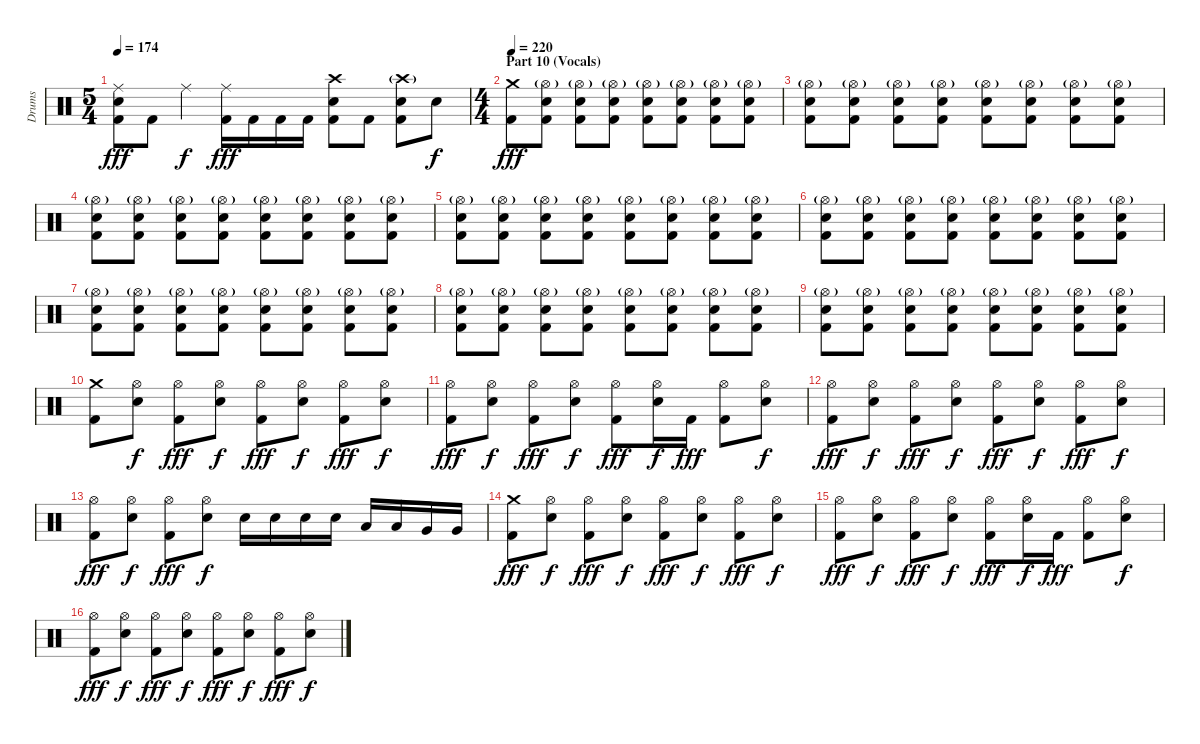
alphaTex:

\track ("Drums" "Drums") {instrument percussion}
\staff {score}
\articulation defaults
\ts (5 4)
\tempo 174
\clef neutral
\ks c
("Ride (middle)" "Electric Snare (hit)" "Kick (hit) 2").8{dy fff} "Kick (hit) 2".8 "Ride (middle)".4{dy f} ("Ride (middle)" "Kick (hit) 2").16{dy fff} "Kick (hit) 2".16 "Kick (hit) 2".16 "Kick (hit) 2".16 ("Crash high (hit)" "Electric Snare (hit)" "Kick (hit) 2").8 "Kick (hit) 2".8 ("Crash high (hit)"{g} "Electric Snare (hit)" "Kick (hit) 2").8 "Electric Snare (hit)".8{dy f} |
\ts (4 4)
\section ("" "Part 10 (Vocals)")
\tempo 220
("Crash medium (hit)" "Kick (hit) 2").8{dy fff} ("Hi-Hat (open)"{g} "Electric Snare (hit)" "Kick (hit) 2").8 ("Hi-Hat (open)"{g} "Electric Snare (hit)" "Kick (hit) 2").8 ("Hi-Hat (open)"{g} "Electric Snare (hit)" "Kick (hit) 2").8 ("Hi-Hat (open)"{g} "Electric Snare (hit)" "Kick (hit) 2").8 ("Hi-Hat (open)"{g} "Electric Snare (hit)" "Kick (hit) 2").8 ("Hi-Hat (open)"{g} "Electric Snare (hit)" "Kick (hit) 2").8 ("Hi-Hat (open)"{g} "Electric Snare (hit)" "Kick (hit) 2").8 |
("Hi-Hat (open)"{g} "Electric Snare (hit)" "Kick (hit) 2").8 ("Hi-Hat (open)"{g} "Electric Snare (hit)" "Kick (hit) 2").8 ("Hi-Hat (open)"{g} "Electric Snare (hit)" "Kick (hit) 2").8 ("Hi-Hat (open)"{g} "Electric Snare (hit)" "Kick (hit) 2").8 ("Hi-Hat (open)"{g} "Electric Snare (hit)" "Kick (hit) 2").8 ("Hi-Hat (open)"{g} "Electric Snare (hit)" "Kick (hit) 2").8 ("Hi-Hat (open)"{g} "Electric Snare (hit)" "Kick (hit) 2").8 ("Hi-Hat (open)"{g} "Electric Snare (hit)" "Kick (hit) 2").8 |
("Hi-Hat (open)"{g} "Electric Snare (hit)" "Kick (hit) 2").8 ("Hi-Hat (open)"{g} "Electric Snare (hit)" "Kick (hit) 2").8 ("Hi-Hat (open)"{g} "Electric Snare (hit)" "Kick (hit) 2").8 ("Hi-Hat (open)"{g} "Electric Snare (hit)" "Kick (hit) 2").8 ("Hi-Hat (open)"{g} "Electric Snare (hit)" "Kick (hit) 2").8 ("Hi-Hat (open)"{g} "Electric Snare (hit)" "Kick (hit) 2").8 ("Hi-Hat (open)"{g} "Electric Snare (hit)" "Kick (hit) 2").8 ("Hi-Hat (open)"{g} "Electric Snare (hit)" "Kick (hit) 2").8 |
("Hi-Hat (open)"{g} "Electric Snare (hit)" "Kick (hit) 2").8 ("Hi-Hat (open)"{g} "Electric Snare (hit)" "Kick (hit) 2").8 ("Hi-Hat (open)"{g} "Electric Snare (hit)" "Kick (hit) 2").8 ("Hi-Hat (open)"{g} "Electric Snare (hit)" "Kick (hit) 2").8 ("Hi-Hat (open)"{g} "Electric Snare (hit)" "Kick (hit) 2").8 ("Hi-Hat (open)"{g} "Electric Snare (hit)" "Kick (hit) 2").8 ("Hi-Hat (open)"{g} "Electric Snare (hit)" "Kick (hit) 2").8 ("Hi-Hat (open)"{g} "Electric Snare (hit)" "Kick (hit) 2").8 |
("Hi-Hat (open)"{g} "Electric Snare (hit)" "Kick (hit) 2").8 ("Hi-Hat (open)"{g} "Electric Snare (hit)" "Kick (hit) 2").8 ("Hi-Hat (open)"{g} "Electric Snare (hit)" "Kick (hit) 2").8 ("Hi-Hat (open)"{g} "Electric Snare (hit)" "Kick (hit) 2").8 ("Hi-Hat (open)"{g} "Electric Snare (hit)" "Kick (hit) 2").8 ("Hi-Hat (open)"{g} "Electric Snare (hit)" "Kick (hit) 2").8 ("Hi-Hat (open)"{g} "Electric Snare (hit)" "Kick (hit) 2").8 ("Hi-Hat (open)"{g} "Electric Snare (hit)" "Kick (hit) 2").8 |
("Hi-Hat (open)"{g} "Electric Snare (hit)" "Kick (hit) 2").8 ("Hi-Hat (open)"{g} "Electric Snare (hit)" "Kick (hit) 2").8 ("Hi-Hat (open)"{g} "Electric Snare (hit)" "Kick (hit) 2").8 ("Hi-Hat (open)"{g} "Electric Snare (hit)" "Kick (hit) 2").8 ("Hi-Hat (open)"{g} "Electric Snare (hit)" "Kick (hit) 2").8 ("Hi-Hat (open)"{g} "Electric Snare (hit)" "Kick (hit) 2").8 ("Hi-Hat (open)"{g} "Electric Snare (hit)" "Kick (hit) 2").8 ("Hi-Hat (open)"{g} "Electric Snare (hit)" "Kick (hit) 2").8 |
("Hi-Hat (open)"{g} "Electric Snare (hit)" "Kick (hit) 2").8 ("Hi-Hat (open)"{g} "Electric Snare (hit)" "Kick (hit) 2").8 ("Hi-Hat (open)"{g} "Electric Snare (hit)" "Kick (hit) 2").8 ("Hi-Hat (open)"{g} "Electric Snare (hit)" "Kick (hit) 2").8 ("Hi-Hat (open)"{g} "Electric Snare (hit)" "Kick (hit) 2").8 ("Hi-Hat (open)"{g} "Electric Snare (hit)" "Kick (hit) 2").8 ("Hi-Hat (open)"{g} "Electric Snare (hit)" "Kick (hit) 2").8 ("Hi-Hat (open)"{g} "Electric Snare (hit)" "Kick (hit) 2").8 |
("Hi-Hat (open)"{g} "Electric Snare (hit)" "Kick (hit) 2").8 ("Hi-Hat (open)"{g} "Electric Snare (hit)" "Kick (hit) 2").8 ("Hi-Hat (open)"{g} "Electric Snare (hit)" "Kick (hit) 2").8 ("Hi-Hat (open)"{g} "Electric Snare (hit)" "Kick (hit) 2").8 ("Hi-Hat (open)"{g} "Electric Snare (hit)" "Kick (hit) 2").8 ("Hi-Hat (open)"{g} "Electric Snare (hit)" "Kick (hit) 2").8 ("Hi-Hat (open)"{g} "Electric Snare (hit)" "Kick (hit) 2").8 ("Hi-Hat (open)"{g} "Electric Snare (hit)" "Kick (hit) 2").8 |
("Crash medium (hit)" "Kick (hit) 2").8 ("Hi-Hat (open)" "Electric Snare (hit)").8{dy f} ("Hi-Hat (open)" "Kick (hit) 2").8{dy fff} ("Hi-Hat (open)" "Electric Snare (hit)").8{dy f} ("Hi-Hat (open)" "Kick (hit) 2").8{dy fff} ("Hi-Hat (open)" "Electric Snare (hit)").8{dy f} ("Hi-Hat (open)" "Kick (hit) 2").8{dy fff} ("Hi-Hat (open)" "Electric Snare (hit)").8{dy f} |
("Hi-Hat (open)" "Kick (hit) 2").8{dy fff} ("Hi-Hat (open)" "Electric Snare (hit)").8{dy f} ("Hi-Hat (open)" "Kick (hit) 2").8{dy fff} ("Hi-Hat (open)" "Electric Snare (hit)").8{dy f} ("Hi-Hat (open)" "Kick (hit) 2").8{dy fff} ("Hi-Hat (open)" "Electric Snare (hit)").16{dy f} "Kick (hit) 2".16{dy fff} ("Hi-Hat (open)" "Kick (hit) 2").8 ("Hi-Hat (open)" "Electric Snare (hit)").8{dy f} |
("Hi-Hat (open)" "Kick (hit) 2").8{dy fff} ("Hi-Hat (open)" "Electric Snare (hit)").8{dy f} ("Hi-Hat (open)" "Kick (hit) 2").8{dy fff} ("Hi-Hat (open)" "Electric Snare (hit)").8{dy f} ("Hi-Hat (open)" "Kick (hit) 2").8{dy fff} ("Hi-Hat (open)" "Electric Snare (hit)").8{dy f} ("Hi-Hat (open)" "Kick (hit) 2").8{dy fff} ("Hi-Hat (open)" "Electric Snare (hit)").8{dy f} |
("Hi-Hat (open)" "Kick (hit) 2").8{dy fff} ("Hi-Hat (open)" "Electric Snare (hit)").8{dy f} ("Hi-Hat (open)" "Kick (hit) 2").8{dy fff} ("Hi-Hat (open)" "Electric Snare (hit)").8{dy f} "Electric Snare (hit)".16 "Electric Snare (hit)".16 "Electric Snare (hit)".16 "Electric Snare (hit)".16 "Low Tom (hit)".16 "Low Tom (hit)".16 "Very Low Tom (hit)".16 "Very Low Tom (hit)".16 |
("Crash medium (hit)" "Kick (hit) 2").8{dy fff} ("Hi-Hat (open)" "Electric Snare (hit)").8{dy f} ("Hi-Hat (open)" "Kick (hit) 2").8{dy fff} ("Hi-Hat (open)" "Electric Snare (hit)").8{dy f} ("Hi-Hat (open)" "Kick (hit) 2").8{dy fff} ("Hi-Hat (open)" "Electric Snare (hit)").8{dy f} ("Hi-Hat (open)" "Kick (hit) 2").8{dy fff} ("Hi-Hat (open)" "Electric Snare (hit)").8{dy f} |
("Hi-Hat (open)" "Kick (hit) 2").8{dy fff} ("Hi-Hat (open)" "Electric Snare (hit)").8{dy f} ("Hi-Hat (open)" "Kick (hit) 2").8{dy fff} ("Hi-Hat (open)" "Electric Snare (hit)").8{dy f} ("Hi-Hat (open)" "Kick (hit) 2").8{dy fff} ("Hi-Hat (open)" "Electric Snare (hit)").16{dy f} "Kick (hit) 2".16{dy fff} ("Hi-Hat (open)" "Kick (hit) 2").8 ("Hi-Hat (open)" "Electric Snare (hit)").8{dy f} |
("Hi-Hat (open)" "Kick (hit) 2").8{dy fff} ("Hi-Hat (open)" "Electric Snare (hit)").8{dy f} ("Hi-Hat (open)" "Kick (hit) 2").8{dy fff} ("Hi-Hat (open)" "Electric Snare (hit)").8{dy f} ("Hi-Hat (open)" "Kick (hit) 2").8{dy fff} ("Hi-Hat (open)" "Electric Snare (hit)").8{dy f} ("Hi-Hat (open)" "Kick (hit) 2").8{dy fff} ("Hi-Hat (open)" "Electric Snare (hit)").8{dy f}
